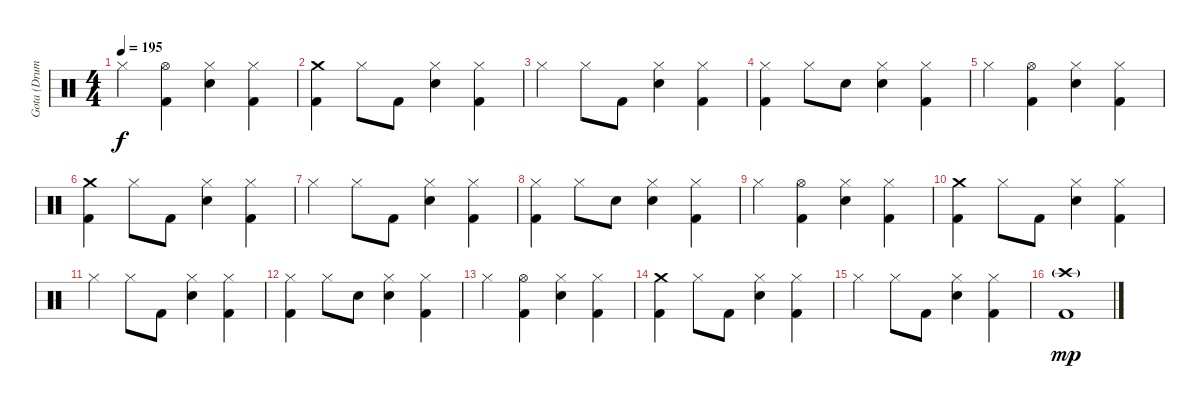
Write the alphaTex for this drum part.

\track ("Gota (Drums)" "Gota (Drum") {instrument percussion}
\staff {score}
\articulation defaults
\ts (4 4)
\tempo 195
\clef neutral
\ks c "Hi-Hat (closed)".4{dy f}
("Hi-Hat (open)" "Kick (hit) 2").4 ("Hi-Hat (closed)" "Electric Snare (hit)").4 ("Hi-Hat (closed)" "Kick (hit) 2").4 |
("Crash medium (hit)" "Kick (hit) 2").4 "Hi-Hat (closed)".8 "Kick (hit) 2".8 ("Hi-Hat (closed)" "Electric Snare (hit)").4 ("Hi-Hat (closed)" "Kick (hit) 2").4 |
"Hi-Hat (closed)".4 "Hi-Hat (closed)".8 "Kick (hit) 2".8 ("Hi-Hat (closed)" "Electric Snare (hit)").4 ("Hi-Hat (closed)" "Kick (hit) 2").4 |
("Hi-Hat (closed)" "Kick (hit) 2").4 "Hi-Hat (closed)".8 "Electric Snare (hit)".8 ("Hi-Hat (closed)" "Electric Snare (hit)").4 ("Hi-Hat (closed)" "Kick (hit) 2").4 |
"Hi-Hat (closed)".4 ("Hi-Hat (open)" "Kick (hit) 2").4 ("Hi-Hat (closed)" "Electric Snare (hit)").4 ("Hi-Hat (closed)" "Kick (hit) 2").4 |
("Crash medium (hit)" "Kick (hit) 2").4 "Hi-Hat (closed)".8 "Kick (hit) 2".8 ("Hi-Hat (closed)" "Electric Snare (hit)").4 ("Hi-Hat (closed)" "Kick (hit) 2").4 |
"Hi-Hat (closed)".4 "Hi-Hat (closed)".8 "Kick (hit) 2".8 ("Hi-Hat (closed)" "Electric Snare (hit)").4 ("Hi-Hat (closed)" "Kick (hit) 2").4 |
("Hi-Hat (closed)" "Kick (hit) 2").4 "Hi-Hat (closed)".8 "Electric Snare (hit)".8 ("Hi-Hat (closed)" "Electric Snare (hit)").4 ("Hi-Hat (closed)" "Kick (hit) 2").4 |
"Hi-Hat (closed)".4 ("Hi-Hat (open)" "Kick (hit) 2").4 ("Hi-Hat (closed)" "Electric Snare (hit)").4 ("Hi-Hat (closed)" "Kick (hit) 2").4 |
("Crash medium (hit)" "Kick (hit) 2").4 "Hi-Hat (closed)".8 "Kick (hit) 2".8 ("Hi-Hat (closed)" "Electric Snare (hit)").4 ("Hi-Hat (closed)" "Kick (hit) 2").4 |
"Hi-Hat (closed)".4 "Hi-Hat (closed)".8 "Kick (hit) 2".8 ("Hi-Hat (closed)" "Electric Snare (hit)").4 ("Hi-Hat (closed)" "Kick (hit) 2").4 |
("Hi-Hat (closed)" "Kick (hit) 2").4 "Hi-Hat (closed)".8 "Electric Snare (hit)".8 ("Hi-Hat (closed)" "Electric Snare (hit)").4 ("Hi-Hat (closed)" "Kick (hit) 2").4 |
"Hi-Hat (closed)".4 ("Hi-Hat (open)" "Kick (hit) 2").4 ("Hi-Hat (closed)" "Electric Snare (hit)").4 ("Hi-Hat (closed)" "Kick (hit) 2").4 |
("Crash medium (hit)" "Kick (hit) 2").4 "Hi-Hat (closed)".8 "Kick (hit) 2".8 ("Hi-Hat (closed)" "Electric Snare (hit)").4 ("Hi-Hat (closed)" "Kick (hit) 2").4 |
"Hi-Hat (closed)".4 "Hi-Hat (closed)".8 "Kick (hit) 2".8 ("Hi-Hat (closed)" "Electric Snare (hit)").4 ("Hi-Hat (closed)" "Kick (hit) 2").4 |
("Crash high (hit)"{g} "Kick (hit) 2").1{dy mp}
